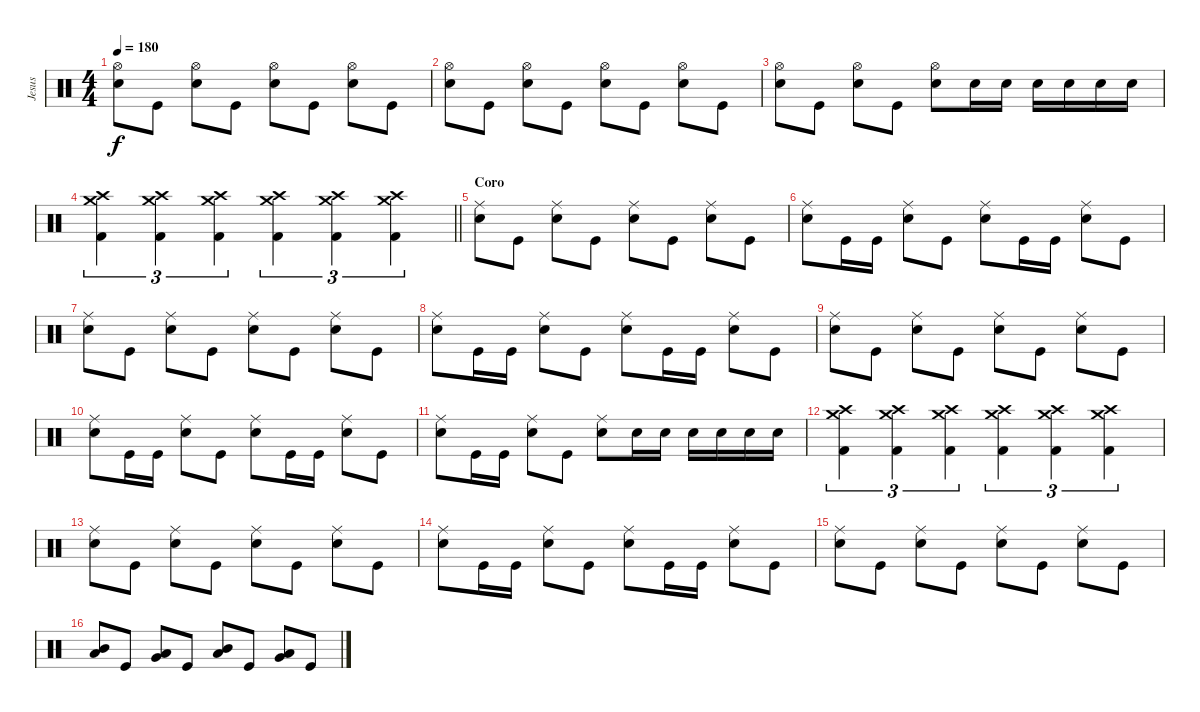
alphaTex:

\track ("Jesus" "Jesus") {instrument percussion}
\staff {score}
\articulation defaults
\ts (4 4)
\tempo 180
\clef neutral
\ks c
("Hi-Hat (open)" "Snare (hit) 2").8{dy f} "Kick (hit)".8 ("Hi-Hat (open)" "Snare (hit) 2").8 "Kick (hit)".8 ("Hi-Hat (open)" "Snare (hit) 2").8 "Kick (hit)".8 ("Hi-Hat (open)" "Snare (hit) 2").8 "Kick (hit)".8 |
("Hi-Hat (open)" "Snare (hit) 2").8 "Kick (hit)".8 ("Hi-Hat (open)" "Snare (hit) 2").8 "Kick (hit)".8 ("Hi-Hat (open)" "Snare (hit) 2").8 "Kick (hit)".8 ("Hi-Hat (open)" "Snare (hit) 2").8 "Kick (hit)".8 |
("Hi-Hat (open)" "Snare (hit) 2").8 "Kick (hit)".8 ("Hi-Hat (open)" "Snare (hit) 2").8 "Kick (hit)".8 ("Hi-Hat (open)" "Snare (hit) 2").8 "Snare (hit) 2".16 "Snare (hit) 2".16 "Snare (hit) 2".16 "Snare (hit) 2".16 "Snare (hit) 2".16 "Snare (hit) 2".16 |
\barLineRight lightlight
("Crash high (hit)" "Crash medium (hit)" "Kick (hit) 2").4{tu (3 2)} ("Crash high (hit)" "Crash medium (hit)" "Kick (hit) 2").4{tu (3 2)} ("Crash high (hit)" "Crash medium (hit)" "Kick (hit) 2").4{tu (3 2)} ("Crash high (hit)" "Crash medium (hit)" "Kick (hit) 2").4{tu (3 2)} ("Crash high (hit)" "Crash medium (hit)" "Kick (hit) 2").4{tu (3 2)} ("Crash high (hit)" "Crash medium (hit)" "Kick (hit) 2").4{tu (3 2)} |
\section ("" "Coro")
("Ride (middle)" "Snare (hit) 2").8 "Kick (hit)".8 ("Ride (middle)" "Snare (hit) 2").8 "Kick (hit)".8 ("Ride (middle)" "Snare (hit) 2").8 "Kick (hit)".8 ("Ride (middle)" "Snare (hit) 2").8 "Kick (hit)".8 |
("Ride (middle)" "Snare (hit) 2").8 "Kick (hit)".16 "Kick (hit)".16 ("Ride (middle)" "Snare (hit) 2").8 "Kick (hit)".8 ("Ride (middle)" "Snare (hit) 2").8 "Kick (hit)".16 "Kick (hit)".16 ("Ride (middle)" "Snare (hit) 2").8 "Kick (hit)".8 |
("Ride (middle)" "Snare (hit) 2").8 "Kick (hit)".8 ("Ride (middle)" "Snare (hit) 2").8 "Kick (hit)".8 ("Ride (middle)" "Snare (hit) 2").8 "Kick (hit)".8 ("Ride (middle)" "Snare (hit) 2").8 "Kick (hit)".8 |
("Ride (middle)" "Snare (hit) 2").8 "Kick (hit)".16 "Kick (hit)".16 ("Ride (middle)" "Snare (hit) 2").8 "Kick (hit)".8 ("Ride (middle)" "Snare (hit) 2").8 "Kick (hit)".16 "Kick (hit)".16 ("Ride (middle)" "Snare (hit) 2").8 "Kick (hit)".8 |
("Ride (middle)" "Snare (hit) 2").8 "Kick (hit)".8 ("Ride (middle)" "Snare (hit) 2").8 "Kick (hit)".8 ("Ride (middle)" "Snare (hit) 2").8 "Kick (hit)".8 ("Ride (middle)" "Snare (hit) 2").8 "Kick (hit)".8 |
("Ride (middle)" "Snare (hit) 2").8 "Kick (hit)".16 "Kick (hit)".16 ("Ride (middle)" "Snare (hit) 2").8 "Kick (hit)".8 ("Ride (middle)" "Snare (hit) 2").8 "Kick (hit)".16 "Kick (hit)".16 ("Ride (middle)" "Snare (hit) 2").8 "Kick (hit)".8 |
("Ride (middle)" "Snare (hit) 2").8 "Kick (hit)".16 "Kick (hit)".16 ("Ride (middle)" "Snare (hit) 2").8 "Kick (hit)".8 ("Ride (middle)" "Snare (hit) 2").8 "Snare (hit) 2".16 "Snare (hit) 2".16 "Snare (hit) 2".16 "Snare (hit) 2".16 "Snare (hit) 2".16 "Snare (hit) 2".16 |
("Crash high (hit)" "Crash medium (hit)" "Kick (hit) 2").4{tu (3 2)} ("Crash high (hit)" "Crash medium (hit)" "Kick (hit) 2").4{tu (3 2)} ("Crash high (hit)" "Crash medium (hit)" "Kick (hit) 2").4{tu (3 2)} ("Crash high (hit)" "Crash medium (hit)" "Kick (hit) 2").4{tu (3 2)} ("Crash high (hit)" "Crash medium (hit)" "Kick (hit) 2").4{tu (3 2)} ("Crash high (hit)" "Crash medium (hit)" "Kick (hit) 2").4{tu (3 2)} |
("Ride (middle)" "Snare (hit) 2").8 "Kick (hit)".8 ("Ride (middle)" "Snare (hit) 2").8 "Kick (hit)".8 ("Ride (middle)" "Snare (hit) 2").8 "Kick (hit)".8 ("Ride (middle)" "Snare (hit) 2").8 "Kick (hit)".8 |
("Ride (middle)" "Snare (hit) 2").8 "Kick (hit)".16 "Kick (hit)".16 ("Ride (middle)" "Snare (hit) 2").8 "Kick (hit)".8 ("Ride (middle)" "Snare (hit) 2").8 "Kick (hit)".16 "Kick (hit)".16 ("Ride (middle)" "Snare (hit) 2").8 "Kick (hit)".8 |
("Ride (middle)" "Snare (hit) 2").8 "Kick (hit)".8 ("Ride (middle)" "Snare (hit) 2").8 "Kick (hit)".8 ("Ride (middle)" "Snare (hit) 2").8 "Kick (hit)".8 ("Ride (middle)" "Snare (hit) 2").8 "Kick (hit)".8 |
("Mid Tom (hit)" "Low Tom (hit)").8 "Kick (hit)".8 ("Low Tom (hit)" "Very Low Tom (hit)").8 "Kick (hit)".8 ("Mid Tom (hit)" "Low Tom (hit)").8 "Kick (hit)".8 ("Low Tom (hit)" "Very Low Tom (hit)").8 "Kick (hit)".8
